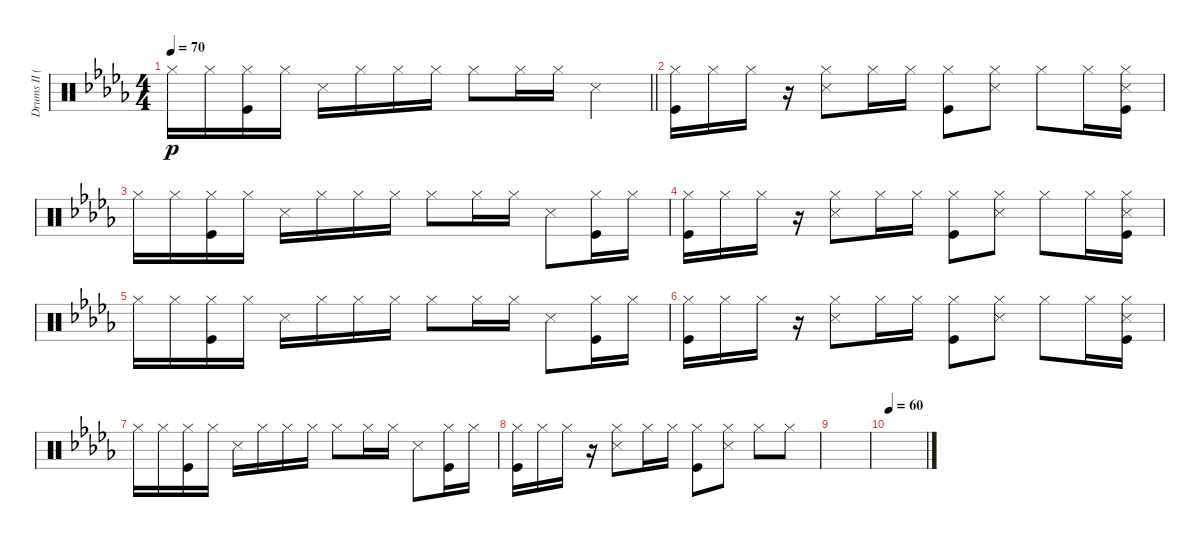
\track ("Drums II (Tainaka Ritsu)" "Drums II (") {instrument percussion}
\staff {score}
\articulation defaults
\ts (4 4)
\tempo 70
\clef neutral
\barLineRight lightlight
\ks db "Hi-Hat (closed)".16{dy p} "Hi-Hat (closed)".16
("Hi-Hat (closed)" "Kick (hit)").16 "Hi-Hat (closed)".16 "Snare (side stick) 3".16 "Hi-Hat (closed)".16 "Hi-Hat (closed)".16 "Hi-Hat (closed)".16 "Hi-Hat (closed)".8 "Hi-Hat (closed)".16 "Hi-Hat (closed)".16 "Snare (side stick) 3".4 |
("Hi-Hat (closed)" "Kick (hit)").16 "Hi-Hat (closed)".16 "Hi-Hat (closed)".16 r.16 ("Hi-Hat (closed)" "Snare (side stick) 3").8 "Hi-Hat (closed)".16 "Hi-Hat (closed)".16 ("Hi-Hat (closed)" "Kick (hit)").8 ("Hi-Hat (closed)" "Snare (side stick) 3").8 "Hi-Hat (closed)".8 "Hi-Hat (closed)".16 ("Hi-Hat (closed)" "Snare (side stick) 3" "Kick (hit)").16 |
"Hi-Hat (closed)".16 "Hi-Hat (closed)".16 ("Hi-Hat (closed)" "Kick (hit)").16 "Hi-Hat (closed)".16 "Snare (side stick) 3".16 "Hi-Hat (closed)".16 "Hi-Hat (closed)".16 "Hi-Hat (closed)".16 "Hi-Hat (closed)".8 "Hi-Hat (closed)".16 "Hi-Hat (closed)".16 "Snare (side stick) 3".8 ("Hi-Hat (closed)" "Kick (hit)").16 "Hi-Hat (closed)".16 |
("Hi-Hat (closed)" "Kick (hit)").16 "Hi-Hat (closed)".16 "Hi-Hat (closed)".16 r.16 ("Hi-Hat (closed)" "Snare (side stick) 3").8 "Hi-Hat (closed)".16 "Hi-Hat (closed)".16 ("Hi-Hat (closed)" "Kick (hit)").8 ("Hi-Hat (closed)" "Snare (side stick) 3").8 "Hi-Hat (closed)".8 "Hi-Hat (closed)".16 ("Hi-Hat (closed)" "Snare (side stick) 3" "Kick (hit)").16 |
"Hi-Hat (closed)".16 "Hi-Hat (closed)".16 ("Hi-Hat (closed)" "Kick (hit)").16 "Hi-Hat (closed)".16 "Snare (side stick) 3".16 "Hi-Hat (closed)".16 "Hi-Hat (closed)".16 "Hi-Hat (closed)".16 "Hi-Hat (closed)".8 "Hi-Hat (closed)".16 "Hi-Hat (closed)".16 "Snare (side stick) 3".8 ("Hi-Hat (closed)" "Kick (hit)").16 "Hi-Hat (closed)".16 |
("Hi-Hat (closed)" "Kick (hit)").16 "Hi-Hat (closed)".16 "Hi-Hat (closed)".16 r.16 ("Hi-Hat (closed)" "Snare (side stick) 3").8 "Hi-Hat (closed)".16 "Hi-Hat (closed)".16 ("Hi-Hat (closed)" "Kick (hit)").8 ("Hi-Hat (closed)" "Snare (side stick) 3").8 "Hi-Hat (closed)".8 "Hi-Hat (closed)".16 ("Hi-Hat (closed)" "Snare (side stick) 3" "Kick (hit)").16 |
"Hi-Hat (closed)".16 "Hi-Hat (closed)".16 ("Hi-Hat (closed)" "Kick (hit)").16 "Hi-Hat (closed)".16 "Snare (side stick) 3".16 "Hi-Hat (closed)".16 "Hi-Hat (closed)".16 "Hi-Hat (closed)".16 "Hi-Hat (closed)".8 "Hi-Hat (closed)".16 "Hi-Hat (closed)".16 "Snare (side stick) 3".8 ("Hi-Hat (closed)" "Kick (hit)").16 "Hi-Hat (closed)".16 |
("Hi-Hat (closed)" "Kick (hit)").16 "Hi-Hat (closed)".16 "Hi-Hat (closed)".16 r.16 ("Hi-Hat (closed)" "Snare (side stick) 3").8 "Hi-Hat (closed)".16 "Hi-Hat (closed)".16 ("Hi-Hat (closed)" "Kick (hit)").8 ("Hi-Hat (closed)" "Snare (side stick) 3").8 "Hi-Hat (closed)".8 "Hi-Hat (closed)".8 |
|
\tempo 60
